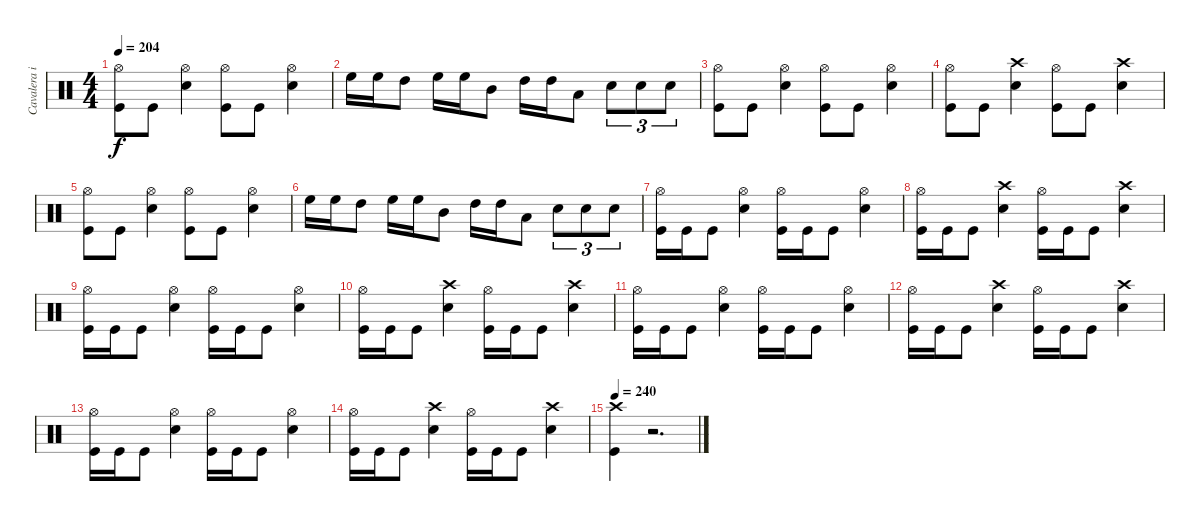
\track ("Cavalera igor" "Cavalera i") {instrument percussion}
\staff {score}
\articulation defaults
\ts (4 4)
\tempo 204
\clef neutral
\ks c
("Hi-Hat (open)" "Kick (hit)").8{dy f} "Kick (hit)".8 ("Hi-Hat (open)" "Electric Snare (hit)").4 ("Hi-Hat (open)" "Kick (hit)").8 "Kick (hit)".8 ("Hi-Hat (open)" "Electric Snare (hit)").4 |
"High Floor Tom (hit)".16 "High Floor Tom (hit)".16 "High Tom (hit)".8 "High Floor Tom (hit)".16 "High Floor Tom (hit)".16 "Mid Tom (hit)".8 "High Tom (hit)".16 "High Tom (hit)".16 "Low Tom (hit)".8 "Electric Snare (hit)".8{tu (3 2)} "Electric Snare (hit)".8{tu (3 2)} "Electric Snare (hit)".8{tu (3 2)} |
("Hi-Hat (open)" "Kick (hit)").8 "Kick (hit)".8 ("Hi-Hat (open)" "Electric Snare (hit)").4 ("Hi-Hat (open)" "Kick (hit)").8 "Kick (hit)".8 ("Hi-Hat (open)" "Electric Snare (hit)").4 |
("Hi-Hat (open)" "Kick (hit)").8 "Kick (hit)".8 ("Crash high (hit)" "Electric Snare (hit)").4 ("Hi-Hat (open)" "Kick (hit)").8 "Kick (hit)".8 ("Crash high (hit)" "Electric Snare (hit)").4 |
("Hi-Hat (open)" "Kick (hit)").8 "Kick (hit)".8 ("Hi-Hat (open)" "Electric Snare (hit)").4 ("Hi-Hat (open)" "Kick (hit)").8 "Kick (hit)".8 ("Hi-Hat (open)" "Electric Snare (hit)").4 |
"High Floor Tom (hit)".16 "High Floor Tom (hit)".16 "High Tom (hit)".8 "High Floor Tom (hit)".16 "High Floor Tom (hit)".16 "Mid Tom (hit)".8 "High Tom (hit)".16 "High Tom (hit)".16 "Low Tom (hit)".8 "Electric Snare (hit)".8{tu (3 2)} "Electric Snare (hit)".8{tu (3 2)} "Electric Snare (hit)".8{tu (3 2)} |
("Hi-Hat (open)" "Kick (hit)").16 "Kick (hit)".16 "Kick (hit)".8 ("Hi-Hat (open)" "Electric Snare (hit)").4 ("Hi-Hat (open)" "Kick (hit)").16 "Kick (hit)".16 "Kick (hit)".8 ("Hi-Hat (open)" "Electric Snare (hit)").4 |
("Hi-Hat (open)" "Kick (hit)").16 "Kick (hit)".16 "Kick (hit)".8 ("Crash high (hit)" "Electric Snare (hit)").4 ("Hi-Hat (open)" "Kick (hit)").16 "Kick (hit)".16 "Kick (hit)".8 ("Crash high (hit)" "Electric Snare (hit)").4 |
("Hi-Hat (open)" "Kick (hit)").16 "Kick (hit)".16 "Kick (hit)".8 ("Hi-Hat (open)" "Electric Snare (hit)").4 ("Hi-Hat (open)" "Kick (hit)").16 "Kick (hit)".16 "Kick (hit)".8 ("Hi-Hat (open)" "Electric Snare (hit)").4 |
("Hi-Hat (open)" "Kick (hit)").16 "Kick (hit)".16 "Kick (hit)".8 ("Crash high (hit)" "Electric Snare (hit)").4 ("Hi-Hat (open)" "Kick (hit)").16 "Kick (hit)".16 "Kick (hit)".8 ("Crash high (hit)" "Electric Snare (hit)").4 |
("Hi-Hat (open)" "Kick (hit)").16 "Kick (hit)".16 "Kick (hit)".8 ("Hi-Hat (open)" "Electric Snare (hit)").4 ("Hi-Hat (open)" "Kick (hit)").16 "Kick (hit)".16 "Kick (hit)".8 ("Hi-Hat (open)" "Electric Snare (hit)").4 |
("Hi-Hat (open)" "Kick (hit)").16 "Kick (hit)".16 "Kick (hit)".8 ("Crash high (hit)" "Electric Snare (hit)").4 ("Hi-Hat (open)" "Kick (hit)").16 "Kick (hit)".16 "Kick (hit)".8 ("Crash high (hit)" "Electric Snare (hit)").4 |
("Hi-Hat (open)" "Kick (hit)").16 "Kick (hit)".16 "Kick (hit)".8 ("Hi-Hat (open)" "Electric Snare (hit)").4 ("Hi-Hat (open)" "Kick (hit)").16 "Kick (hit)".16 "Kick (hit)".8 ("Hi-Hat (open)" "Electric Snare (hit)").4 |
("Hi-Hat (open)" "Kick (hit)").16 "Kick (hit)".16 "Kick (hit)".8 ("Crash high (hit)" "Electric Snare (hit)").4 ("Hi-Hat (open)" "Kick (hit)").16 "Kick (hit)".16 "Kick (hit)".8 ("Crash high (hit)" "Electric Snare (hit)").4 |
\tempo 240
("Crash high (hit)" "Kick (hit)").4 r.2{d volume 0}
